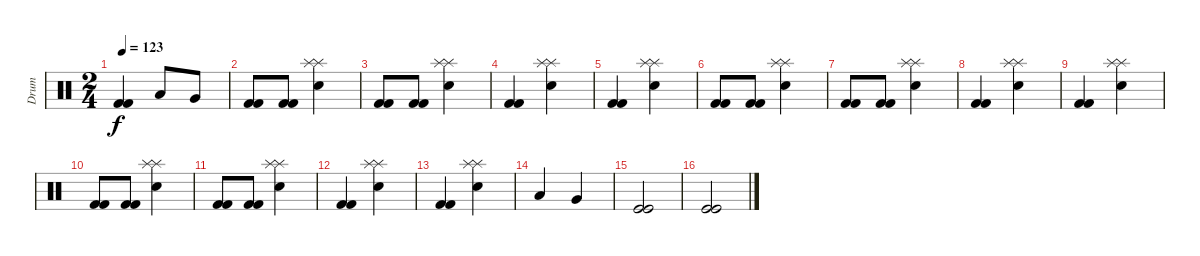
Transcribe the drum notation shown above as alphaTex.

\track ("Drum" "Drum") {instrument percussion}
\staff {score}
\articulation defaults
\ts (2 4)
\tempo 123
\clef neutral
\ks c
("Kick (hit) 2" "Kick (hit) 2").4{dy f} "Low Tom (hit)".8 "Very Low Tom (hit)".8 |
("Kick (hit) 2" "Kick (hit) 2").8 ("Kick (hit) 2" "Kick (hit) 2").8 ("Splash (hit)" "Splash (hit)" "Snare (hit) 2").4 |
("Kick (hit) 2" "Kick (hit) 2").8 ("Kick (hit) 2" "Kick (hit) 2").8 ("Splash (hit)" "Splash (hit)" "Snare (hit) 2").4 |
("Kick (hit) 2" "Kick (hit) 2").4 ("Splash (hit)" "Splash (hit)" "Snare (hit) 2").4 |
("Kick (hit) 2" "Kick (hit) 2").4 ("Splash (hit)" "Splash (hit)" "Snare (hit) 2").4 |
("Kick (hit) 2" "Kick (hit) 2").8 ("Kick (hit) 2" "Kick (hit) 2").8 ("Splash (hit)" "Splash (hit)" "Snare (hit) 2").4 |
("Kick (hit) 2" "Kick (hit) 2").8 ("Kick (hit) 2" "Kick (hit) 2").8 ("Splash (hit)" "Splash (hit)" "Snare (hit) 2").4 |
("Kick (hit) 2" "Kick (hit) 2").4 ("Splash (hit)" "Splash (hit)" "Snare (hit) 2").4 |
("Kick (hit) 2" "Kick (hit) 2").4 ("Splash (hit)" "Splash (hit)" "Snare (hit) 2").4 |
("Kick (hit) 2" "Kick (hit) 2").8 ("Kick (hit) 2" "Kick (hit) 2").8 ("Splash (hit)" "Splash (hit)" "Snare (hit) 2").4 |
("Kick (hit) 2" "Kick (hit) 2").8 ("Kick (hit) 2" "Kick (hit) 2").8 ("Splash (hit)" "Splash (hit)" "Snare (hit) 2").4 |
("Kick (hit) 2" "Kick (hit) 2").4 ("Splash (hit)" "Splash (hit)" "Snare (hit) 2").4 |
("Kick (hit) 2" "Kick (hit) 2").4 ("Splash (hit)" "Splash (hit)" "Snare (hit) 2").4 |
"Low Tom (hit)".4 "Very Low Tom (hit)".4 |
("Kick (hit)" "Kick (hit)").2 |
("Kick (hit)" "Kick (hit)").2
